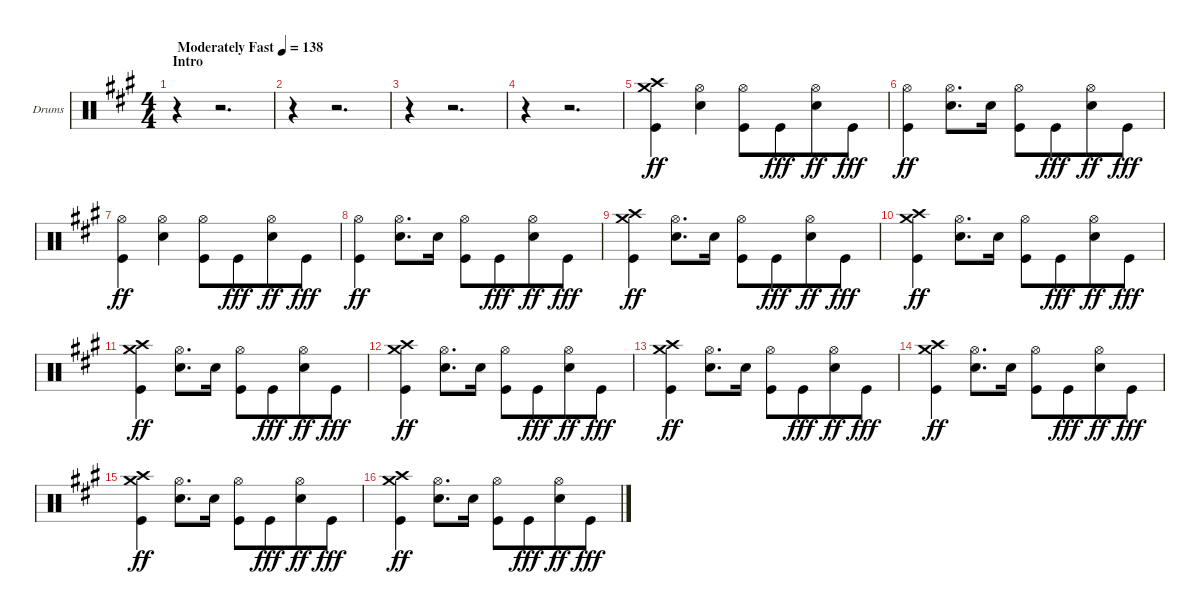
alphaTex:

\defaultSystemsLayout 4
\bracketExtendMode groupsimilarinstruments
\firstSystemTrackNameOrientation horizontal
\otherSystemsTrackNameOrientation horizontal
\track ("Drumkit" "Drums") {instrument percussion}
\staff {score}
\articulation defaults
\ts (4 4)
\beaming (8 4 4)
\section ("" "Intro")
\tempo (138 "Moderately Fast")
\clef neutral
\scale
1.08827
\ks a
r.4{dy ff} r.2{d} |
\scale
0.911728 r.4 r.2{d} |
\scale
1.05801 r.4 r.2{d} |
\scale
0.941992 r.4 r.2{d} |
\scale
1.05801 ("Crash high (hit)" "Crash medium (hit)" "Kick (hit)").4 ("Hi-Hat (open)" "Snare (hit) 2").4 ("Hi-Hat (open)" "Kick (hit)").8 "Kick (hit)".8{dy fff} ("Hi-Hat (open)" "Snare (hit) 2").8{dy ff} "Kick (hit)".8{dy fff} |
\scale
0.941992 ("Hi-Hat (open)" "Kick (hit)").4{dy ff} ("Hi-Hat (open)" "Snare (hit) 2").8{d} "Snare (hit) 2".16 ("Hi-Hat (open)" "Kick (hit)").8 "Kick (hit)".8{dy fff} ("Hi-Hat (open)" "Snare (hit) 2").8{dy ff} "Kick (hit)".8{dy fff} |
\scale
1.05801 ("Hi-Hat (open)" "Kick (hit)").4{dy ff} ("Hi-Hat (open)" "Snare (hit) 2").4 ("Hi-Hat (open)" "Kick (hit)").8 "Kick (hit)".8{dy fff} ("Hi-Hat (open)" "Snare (hit) 2").8{dy ff} "Kick (hit)".8{dy fff} |
\scale
0.941992 ("Hi-Hat (open)" "Kick (hit)").4{dy ff} ("Hi-Hat (open)" "Snare (hit) 2").8{d} "Snare (hit) 2".16 ("Hi-Hat (open)" "Kick (hit)").8 "Kick (hit)".8{dy fff} ("Hi-Hat (open)" "Snare (hit) 2").8{dy ff} "Kick (hit)".8{dy fff} |
\scale
1.05801 ("Crash medium (hit)" "Crash high (hit)" "Kick (hit)").4{dy ff} ("Hi-Hat (open)" "Snare (hit) 2").8{d} "Snare (hit) 2".16 ("Hi-Hat (open)" "Kick (hit)").8 "Kick (hit)".8{dy fff} ("Hi-Hat (open)" "Snare (hit) 2").8{dy ff} "Kick (hit)".8{dy fff} |
\scale
0.941992 ("Crash medium (hit)" "Crash high (hit)" "Kick (hit)").4{dy ff} ("Hi-Hat (open)" "Snare (hit) 2").8{d} "Snare (hit) 2".16 ("Hi-Hat (open)" "Kick (hit)").8 "Kick (hit)".8{dy fff} ("Hi-Hat (open)" "Snare (hit) 2").8{dy ff} "Kick (hit)".8{dy fff} |
\scale
1.05801 ("Crash medium (hit)" "Crash high (hit)" "Kick (hit)").4{dy ff} ("Hi-Hat (open)" "Snare (hit) 2").8{d} "Snare (hit) 2".16 ("Hi-Hat (open)" "Kick (hit)").8 "Kick (hit)".8{dy fff} ("Hi-Hat (open)" "Snare (hit) 2").8{dy ff} "Kick (hit)".8{dy fff} |
\scale
0.941992 ("Crash medium (hit)" "Crash high (hit)" "Kick (hit)").4{dy ff} ("Hi-Hat (open)" "Snare (hit) 2").8{d} "Snare (hit) 2".16 ("Hi-Hat (open)" "Kick (hit)").8 "Kick (hit)".8{dy fff} ("Hi-Hat (open)" "Snare (hit) 2").8{dy ff} "Kick (hit)".8{dy fff} |
\scale
1.05801 ("Crash medium (hit)" "Crash high (hit)" "Kick (hit)").4{dy ff} ("Hi-Hat (open)" "Snare (hit) 2").8{d} "Snare (hit) 2".16 ("Hi-Hat (open)" "Kick (hit)").8 "Kick (hit)".8{dy fff} ("Hi-Hat (open)" "Snare (hit) 2").8{dy ff} "Kick (hit)".8{dy fff} |
\scale
0.941992 ("Crash medium (hit)" "Crash high (hit)" "Kick (hit)").4{dy ff} ("Hi-Hat (open)" "Snare (hit) 2").8{d} "Snare (hit) 2".16 ("Hi-Hat (open)" "Kick (hit)").8 "Kick (hit)".8{dy fff} ("Hi-Hat (open)" "Snare (hit) 2").8{dy ff} "Kick (hit)".8{dy fff} |
\scale
1.05801 ("Crash medium (hit)" "Crash high (hit)" "Kick (hit)").4{dy ff} ("Hi-Hat (open)" "Snare (hit) 2").8{d} "Snare (hit) 2".16 ("Hi-Hat (open)" "Kick (hit)").8 "Kick (hit)".8{dy fff} ("Hi-Hat (open)" "Snare (hit) 2").8{dy ff} "Kick (hit)".8{dy fff} |
\scale
0.941992 ("Crash medium (hit)" "Crash high (hit)" "Kick (hit)").4{dy ff} ("Hi-Hat (open)" "Snare (hit) 2").8{d} "Snare (hit) 2".16 ("Hi-Hat (open)" "Kick (hit)").8 "Kick (hit)".8{dy fff} ("Hi-Hat (open)" "Snare (hit) 2").8{dy ff} "Kick (hit)".8{dy fff}
